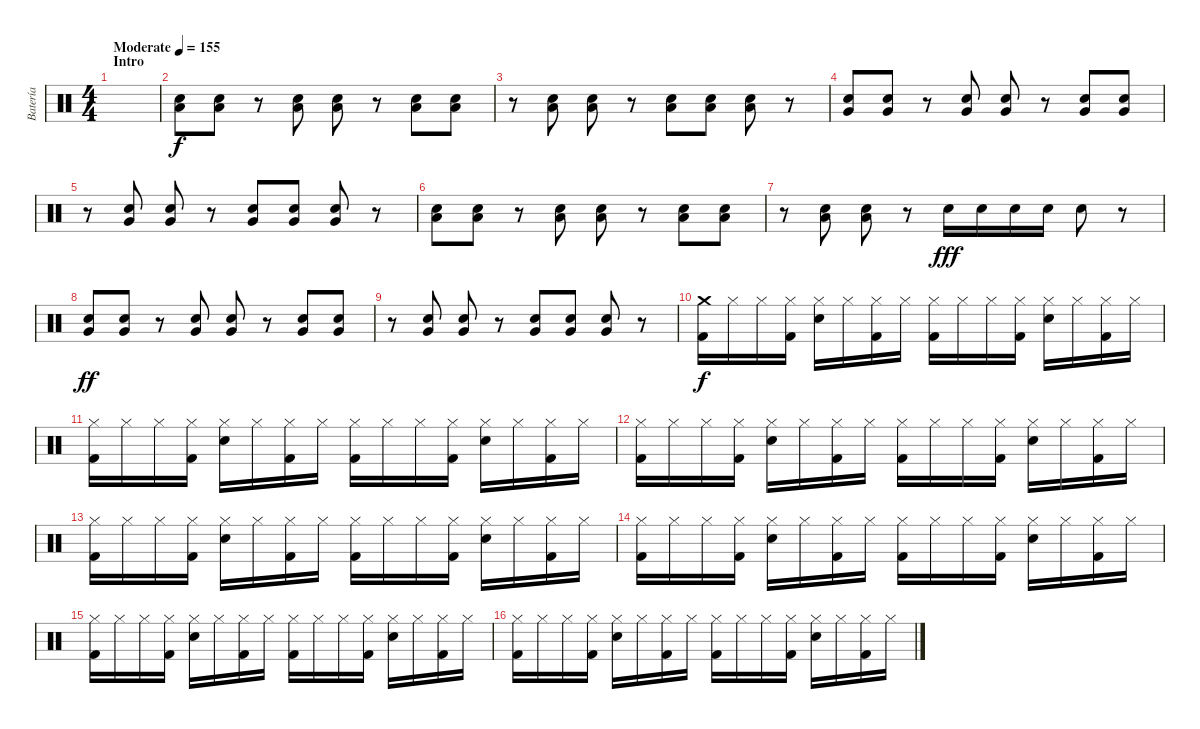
\track ("Batería" "Batería") {instrument percussion}
\staff {score}
\articulation defaults
\ts (4 4)
\section ("" "Intro")
\tempo (155 "Moderate")
\clef neutral
\ks c
|
("Low Floor Tom (hit)" "Snare (hit) 2").8 ("Low Floor Tom (hit)" "Snare (hit) 2").8 r.8 ("Low Floor Tom (hit)" "Snare (hit) 2").8 ("Low Floor Tom (hit)" "Snare (hit) 2").8 r.8 ("Low Floor Tom (hit)" "Snare (hit) 2").8 ("Low Floor Tom (hit)" "Snare (hit) 2").8 |
r.8 ("Low Floor Tom (hit)" "Snare (hit) 2").8 ("Low Floor Tom (hit)" "Snare (hit) 2").8 r.8 ("Low Floor Tom (hit)" "Snare (hit) 2").8 ("Low Floor Tom (hit)" "Snare (hit) 2").8 ("Low Floor Tom (hit)" "Snare (hit) 2").8 r.8 |
("Very Low Tom (hit)" "Snare (hit) 2").8 ("Very Low Tom (hit)" "Snare (hit) 2").8 r.8 ("Very Low Tom (hit)" "Snare (hit) 2").8 ("Very Low Tom (hit)" "Snare (hit) 2").8 r.8 ("Very Low Tom (hit)" "Snare (hit) 2").8 ("Very Low Tom (hit)" "Snare (hit) 2").8 |
r.8 ("Very Low Tom (hit)" "Snare (hit) 2").8 ("Very Low Tom (hit)" "Snare (hit) 2").8 r.8 ("Very Low Tom (hit)" "Snare (hit) 2").8 ("Very Low Tom (hit)" "Snare (hit) 2").8 ("Very Low Tom (hit)" "Snare (hit) 2").8 r.8 |
("Low Floor Tom (hit)" "Snare (hit) 2").8 ("Low Floor Tom (hit)" "Snare (hit) 2").8 r.8 ("Low Floor Tom (hit)" "Snare (hit) 2").8 ("Low Floor Tom (hit)" "Snare (hit) 2").8 r.8 ("Low Floor Tom (hit)" "Snare (hit) 2").8 ("Low Floor Tom (hit)" "Snare (hit) 2").8 |
r.8 ("Low Floor Tom (hit)" "Snare (hit) 2").8 ("Low Floor Tom (hit)" "Snare (hit) 2").8 r.8 "Snare (hit) 2".16{dy fff} "Snare (hit) 2".16 "Snare (hit) 2".16 "Snare (hit) 2".16 "Snare (hit) 2".8 r.8 |
("Very Low Tom (hit)" "Snare (hit) 2").8{dy ff} ("Very Low Tom (hit)" "Snare (hit) 2").8 r.8 ("Very Low Tom (hit)" "Snare (hit) 2").8 ("Very Low Tom (hit)" "Snare (hit) 2").8 r.8 ("Very Low Tom (hit)" "Snare (hit) 2").8 ("Very Low Tom (hit)" "Snare (hit) 2").8 |
r.8 ("Very Low Tom (hit)" "Snare (hit) 2").8 ("Very Low Tom (hit)" "Snare (hit) 2").8 r.8 ("Very Low Tom (hit)" "Snare (hit) 2").8 ("Very Low Tom (hit)" "Snare (hit) 2").8 ("Very Low Tom (hit)" "Snare (hit) 2").8 r.8 |
("Crash medium (hit)" "Kick (hit) 2").16{dy f} "Hi-Hat (closed)".16 "Hi-Hat (closed)".16 ("Hi-Hat (closed)" "Kick (hit) 2").16 ("Hi-Hat (closed)" "Snare (hit) 2").16 "Hi-Hat (closed)".16 ("Hi-Hat (closed)" "Kick (hit) 2").16 "Hi-Hat (closed)".16 ("Hi-Hat (closed)" "Kick (hit) 2").16 "Hi-Hat (closed)".16 "Hi-Hat (closed)".16 ("Hi-Hat (closed)" "Kick (hit) 2").16 ("Hi-Hat (closed)" "Snare (hit) 2").16 "Hi-Hat (closed)".16 ("Hi-Hat (closed)" "Kick (hit) 2").16 "Hi-Hat (closed)".16 |
("Hi-Hat (closed)" "Kick (hit) 2").16 "Hi-Hat (closed)".16 "Hi-Hat (closed)".16 ("Hi-Hat (closed)" "Kick (hit) 2").16 ("Hi-Hat (closed)" "Snare (hit) 2").16 "Hi-Hat (closed)".16 ("Hi-Hat (closed)" "Kick (hit) 2").16 "Hi-Hat (closed)".16 ("Hi-Hat (closed)" "Kick (hit) 2").16 "Hi-Hat (closed)".16 "Hi-Hat (closed)".16 ("Hi-Hat (closed)" "Kick (hit) 2").16 ("Hi-Hat (closed)" "Snare (hit) 2").16 "Hi-Hat (closed)".16 ("Hi-Hat (closed)" "Kick (hit) 2").16 "Hi-Hat (closed)".16 |
("Hi-Hat (closed)" "Kick (hit) 2").16 "Hi-Hat (closed)".16 "Hi-Hat (closed)".16 ("Hi-Hat (closed)" "Kick (hit) 2").16 ("Hi-Hat (closed)" "Snare (hit) 2").16 "Hi-Hat (closed)".16 ("Hi-Hat (closed)" "Kick (hit) 2").16 "Hi-Hat (closed)".16 ("Hi-Hat (closed)" "Kick (hit) 2").16 "Hi-Hat (closed)".16 "Hi-Hat (closed)".16 ("Hi-Hat (closed)" "Kick (hit) 2").16 ("Hi-Hat (closed)" "Snare (hit) 2").16 "Hi-Hat (closed)".16 ("Hi-Hat (closed)" "Kick (hit) 2").16 "Hi-Hat (closed)".16 |
("Hi-Hat (closed)" "Kick (hit) 2").16 "Hi-Hat (closed)".16 "Hi-Hat (closed)".16 ("Hi-Hat (closed)" "Kick (hit) 2").16 ("Hi-Hat (closed)" "Snare (hit) 2").16 "Hi-Hat (closed)".16 ("Hi-Hat (closed)" "Kick (hit) 2").16 "Hi-Hat (closed)".16 ("Hi-Hat (closed)" "Kick (hit) 2").16 "Hi-Hat (closed)".16 "Hi-Hat (closed)".16 ("Hi-Hat (closed)" "Kick (hit) 2").16 ("Hi-Hat (closed)" "Snare (hit) 2").16 "Hi-Hat (closed)".16 ("Hi-Hat (closed)" "Kick (hit) 2").16 "Hi-Hat (closed)".16 |
("Hi-Hat (closed)" "Kick (hit) 2").16 "Hi-Hat (closed)".16 "Hi-Hat (closed)".16 ("Hi-Hat (closed)" "Kick (hit) 2").16 ("Hi-Hat (closed)" "Snare (hit) 2").16 "Hi-Hat (closed)".16 ("Hi-Hat (closed)" "Kick (hit) 2").16 "Hi-Hat (closed)".16 ("Hi-Hat (closed)" "Kick (hit) 2").16 "Hi-Hat (closed)".16 "Hi-Hat (closed)".16 ("Hi-Hat (closed)" "Kick (hit) 2").16 ("Hi-Hat (closed)" "Snare (hit) 2").16 "Hi-Hat (closed)".16 ("Hi-Hat (closed)" "Kick (hit) 2").16 "Hi-Hat (closed)".16 |
("Hi-Hat (closed)" "Kick (hit) 2").16 "Hi-Hat (closed)".16 "Hi-Hat (closed)".16 ("Hi-Hat (closed)" "Kick (hit) 2").16 ("Hi-Hat (closed)" "Snare (hit) 2").16 "Hi-Hat (closed)".16 ("Hi-Hat (closed)" "Kick (hit) 2").16 "Hi-Hat (closed)".16 ("Hi-Hat (closed)" "Kick (hit) 2").16 "Hi-Hat (closed)".16 "Hi-Hat (closed)".16 ("Hi-Hat (closed)" "Kick (hit) 2").16 ("Hi-Hat (closed)" "Snare (hit) 2").16 "Hi-Hat (closed)".16 ("Hi-Hat (closed)" "Kick (hit) 2").16 "Hi-Hat (closed)".16 |
("Hi-Hat (closed)" "Kick (hit) 2").16 "Hi-Hat (closed)".16 "Hi-Hat (closed)".16 ("Hi-Hat (closed)" "Kick (hit) 2").16 ("Hi-Hat (closed)" "Snare (hit) 2").16 "Hi-Hat (closed)".16 ("Hi-Hat (closed)" "Kick (hit) 2").16 "Hi-Hat (closed)".16 ("Hi-Hat (closed)" "Kick (hit) 2").16 "Hi-Hat (closed)".16 "Hi-Hat (closed)".16 ("Hi-Hat (closed)" "Kick (hit) 2").16 ("Hi-Hat (closed)" "Snare (hit) 2").16 "Hi-Hat (closed)".16 ("Hi-Hat (closed)" "Kick (hit) 2").16 "Hi-Hat (closed)".16
